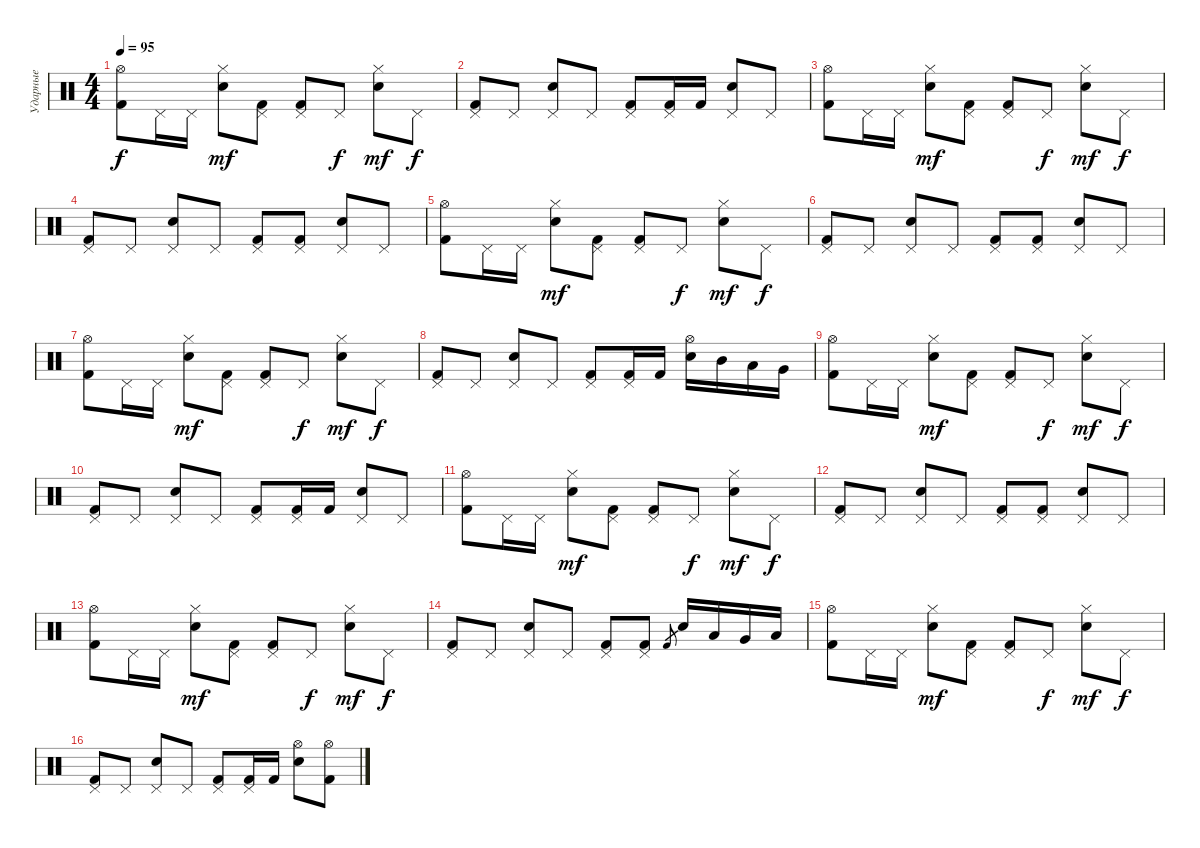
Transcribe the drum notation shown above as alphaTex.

\track ("Ударные" "Ударные") {instrument percussion}
\staff {score}
\articulation defaults
\ts (4 4)
\tempo 95
\clef neutral
\ks c
("Kick (hit) 2" "Hi-Hat (open)").8{dy f} "Pedal Hi-Hat (hit)".16 "Pedal Hi-Hat (hit)".16 ("Hi-Hat (closed)" "Electric Snare (hit)").8{dy mf} ("Pedal Hi-Hat (hit)" "Kick (hit) 2").8 ("Pedal Hi-Hat (hit)" "Kick (hit) 2").8 "Pedal Hi-Hat (hit)".8{dy f} ("Hi-Hat (closed)" "Electric Snare (hit)").8{dy mf} "Pedal Hi-Hat (hit)".8{dy f} |
("Pedal Hi-Hat (hit)" "Kick (hit) 2").8 "Pedal Hi-Hat (hit)".8 ("Pedal Hi-Hat (hit)" "Electric Snare (hit)").8 "Pedal Hi-Hat (hit)".8 ("Pedal Hi-Hat (hit)" "Kick (hit) 2").8 ("Pedal Hi-Hat (hit)" "Kick (hit) 2").16 "Kick (hit) 2".16 ("Pedal Hi-Hat (hit)" "Electric Snare (hit)").8 "Pedal Hi-Hat (hit)".8 |
("Kick (hit) 2" "Hi-Hat (open)").8 "Pedal Hi-Hat (hit)".16 "Pedal Hi-Hat (hit)".16 ("Hi-Hat (closed)" "Electric Snare (hit)").8{dy mf} ("Pedal Hi-Hat (hit)" "Kick (hit) 2").8 ("Pedal Hi-Hat (hit)" "Kick (hit) 2").8 "Pedal Hi-Hat (hit)".8{dy f} ("Hi-Hat (closed)" "Electric Snare (hit)").8{dy mf} "Pedal Hi-Hat (hit)".8{dy f} |
("Pedal Hi-Hat (hit)" "Kick (hit) 2").8 "Pedal Hi-Hat (hit)".8 ("Pedal Hi-Hat (hit)" "Electric Snare (hit)").8 "Pedal Hi-Hat (hit)".8 ("Pedal Hi-Hat (hit)" "Kick (hit) 2").8 ("Pedal Hi-Hat (hit)" "Kick (hit) 2").8 ("Pedal Hi-Hat (hit)" "Electric Snare (hit)").8 "Pedal Hi-Hat (hit)".8 |
("Kick (hit) 2" "Hi-Hat (open)").8 "Pedal Hi-Hat (hit)".16 "Pedal Hi-Hat (hit)".16 ("Hi-Hat (closed)" "Electric Snare (hit)").8{dy mf} ("Pedal Hi-Hat (hit)" "Kick (hit) 2").8 ("Pedal Hi-Hat (hit)" "Kick (hit) 2").8 "Pedal Hi-Hat (hit)".8{dy f} ("Hi-Hat (closed)" "Electric Snare (hit)").8{dy mf} "Pedal Hi-Hat (hit)".8{dy f} |
("Pedal Hi-Hat (hit)" "Kick (hit) 2").8 "Pedal Hi-Hat (hit)".8 ("Pedal Hi-Hat (hit)" "Electric Snare (hit)").8 "Pedal Hi-Hat (hit)".8 ("Pedal Hi-Hat (hit)" "Kick (hit) 2").8 ("Pedal Hi-Hat (hit)" "Kick (hit) 2").8 ("Pedal Hi-Hat (hit)" "Electric Snare (hit)").8 "Pedal Hi-Hat (hit)".8 |
("Kick (hit) 2" "Hi-Hat (open)").8 "Pedal Hi-Hat (hit)".16 "Pedal Hi-Hat (hit)".16 ("Hi-Hat (closed)" "Electric Snare (hit)").8{dy mf} ("Pedal Hi-Hat (hit)" "Kick (hit) 2").8 ("Pedal Hi-Hat (hit)" "Kick (hit) 2").8 "Pedal Hi-Hat (hit)".8{dy f} ("Hi-Hat (closed)" "Electric Snare (hit)").8{dy mf} "Pedal Hi-Hat (hit)".8{dy f} |
("Pedal Hi-Hat (hit)" "Kick (hit) 2").8 "Pedal Hi-Hat (hit)".8 ("Pedal Hi-Hat (hit)" "Electric Snare (hit)").8 "Pedal Hi-Hat (hit)".8 ("Pedal Hi-Hat (hit)" "Kick (hit) 2").8 ("Pedal Hi-Hat (hit)" "Kick (hit) 2").16 "Kick (hit) 2".16 ("Hi-Hat (open)" "Electric Snare (hit)").16 "Mid Tom (hit)".16 "Low Tom (hit)".16 "Very Low Tom (hit)".16 |
("Kick (hit) 2" "Hi-Hat (open)").8 "Pedal Hi-Hat (hit)".16 "Pedal Hi-Hat (hit)".16 ("Hi-Hat (closed)" "Electric Snare (hit)").8{dy mf} ("Pedal Hi-Hat (hit)" "Kick (hit) 2").8 ("Pedal Hi-Hat (hit)" "Kick (hit) 2").8 "Pedal Hi-Hat (hit)".8{dy f} ("Hi-Hat (closed)" "Electric Snare (hit)").8{dy mf} "Pedal Hi-Hat (hit)".8{dy f} |
("Pedal Hi-Hat (hit)" "Kick (hit) 2").8 "Pedal Hi-Hat (hit)".8 ("Pedal Hi-Hat (hit)" "Electric Snare (hit)").8 "Pedal Hi-Hat (hit)".8 ("Pedal Hi-Hat (hit)" "Kick (hit) 2").8 ("Pedal Hi-Hat (hit)" "Kick (hit) 2").16 "Kick (hit) 2".16 ("Pedal Hi-Hat (hit)" "Electric Snare (hit)").8 "Pedal Hi-Hat (hit)".8 |
("Kick (hit) 2" "Hi-Hat (open)").8 "Pedal Hi-Hat (hit)".16 "Pedal Hi-Hat (hit)".16 ("Hi-Hat (closed)" "Electric Snare (hit)").8{dy mf} ("Pedal Hi-Hat (hit)" "Kick (hit) 2").8 ("Pedal Hi-Hat (hit)" "Kick (hit) 2").8 "Pedal Hi-Hat (hit)".8{dy f} ("Hi-Hat (closed)" "Electric Snare (hit)").8{dy mf} "Pedal Hi-Hat (hit)".8{dy f} |
("Pedal Hi-Hat (hit)" "Kick (hit) 2").8 "Pedal Hi-Hat (hit)".8 ("Pedal Hi-Hat (hit)" "Electric Snare (hit)").8 "Pedal Hi-Hat (hit)".8 ("Pedal Hi-Hat (hit)" "Kick (hit) 2").8 ("Pedal Hi-Hat (hit)" "Kick (hit) 2").8 ("Pedal Hi-Hat (hit)" "Electric Snare (hit)").8 "Pedal Hi-Hat (hit)".8 |
("Kick (hit) 2" "Hi-Hat (open)").8 "Pedal Hi-Hat (hit)".16 "Pedal Hi-Hat (hit)".16 ("Hi-Hat (closed)" "Electric Snare (hit)").8{dy mf} ("Pedal Hi-Hat (hit)" "Kick (hit) 2").8 ("Pedal Hi-Hat (hit)" "Kick (hit) 2").8 "Pedal Hi-Hat (hit)".8{dy f} ("Hi-Hat (closed)" "Electric Snare (hit)").8{dy mf} "Pedal Hi-Hat (hit)".8{dy f} |
("Pedal Hi-Hat (hit)" "Kick (hit) 2").8 "Pedal Hi-Hat (hit)".8 ("Pedal Hi-Hat (hit)" "Electric Snare (hit)").8 "Pedal Hi-Hat (hit)".8 ("Pedal Hi-Hat (hit)" "Kick (hit) 2").8 ("Pedal Hi-Hat (hit)" "Kick (hit) 2").8 "Kick (hit) 2".8{gr} "Electric Snare (hit)".16 "Low Tom (hit)".16 "Very Low Tom (hit)".16 "Low Floor Tom (hit)".16 |
("Kick (hit) 2" "Hi-Hat (open)").8 "Pedal Hi-Hat (hit)".16 "Pedal Hi-Hat (hit)".16 ("Hi-Hat (closed)" "Electric Snare (hit)").8{dy mf} ("Pedal Hi-Hat (hit)" "Kick (hit) 2").8 ("Pedal Hi-Hat (hit)" "Kick (hit) 2").8 "Pedal Hi-Hat (hit)".8{dy f} ("Hi-Hat (closed)" "Electric Snare (hit)").8{dy mf} "Pedal Hi-Hat (hit)".8{dy f} |
("Pedal Hi-Hat (hit)" "Kick (hit) 2").8 "Pedal Hi-Hat (hit)".8 ("Pedal Hi-Hat (hit)" "Electric Snare (hit)").8 "Pedal Hi-Hat (hit)".8 ("Pedal Hi-Hat (hit)" "Kick (hit) 2").8 ("Pedal Hi-Hat (hit)" "Kick (hit) 2").16 "Kick (hit) 2".16 ("Hi-Hat (open)" "Electric Snare (hit)").8 ("Hi-Hat (open)" "Kick (hit) 2").8
